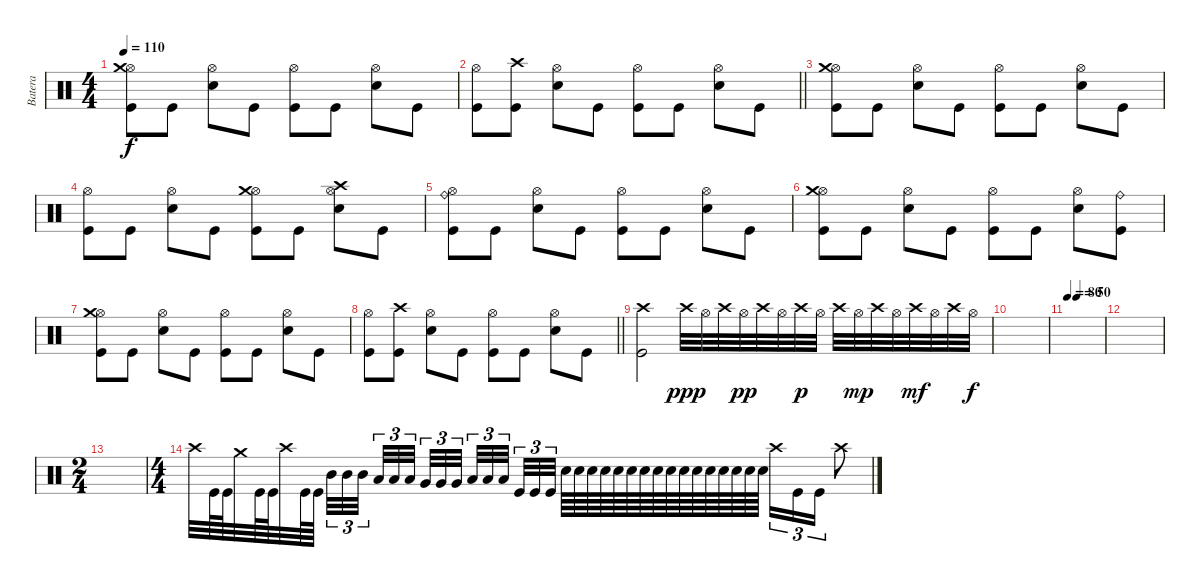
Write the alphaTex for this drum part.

\track ("Batera" "Batera") {instrument percussion}
\staff {score}
\articulation defaults
\ts (4 4)
\tempo 110
\clef neutral
\ks c
("Hi-Hat (open)" "Kick (hit)" "Crash medium (hit)").8{dy f} "Kick (hit)".8 ("Hi-Hat (open)" "Snare (hit) 2").8 "Kick (hit)".8 ("Hi-Hat (open)" "Kick (hit)").8 "Kick (hit)".8 ("Hi-Hat (open)" "Snare (hit) 2").8 "Kick (hit)".8 |
\barLineRight lightlight
("Hi-Hat (open)" "Kick (hit)").8 ("Kick (hit)" "Crash high (hit)").8 ("Hi-Hat (open)" "Snare (hit) 2").8 "Kick (hit)".8 ("Hi-Hat (open)" "Kick (hit)").8 "Kick (hit)".8 ("Hi-Hat (open)" "Snare (hit) 2").8 "Kick (hit)".8 |
("Hi-Hat (open)" "Kick (hit)" "Crash medium (hit)").8 "Kick (hit)".8 ("Hi-Hat (open)" "Snare (hit) 2").8 "Kick (hit)".8 ("Hi-Hat (open)" "Kick (hit)").8 "Kick (hit)".8 ("Hi-Hat (open)" "Snare (hit) 2").8 "Kick (hit)".8 |
("Hi-Hat (open)" "Kick (hit)").8 "Kick (hit)".8 ("Hi-Hat (open)" "Snare (hit) 2").8 "Kick (hit)".8 ("Hi-Hat (open)" "Kick (hit)" "Crash medium (hit)").8 "Kick (hit)".8 ("Hi-Hat (open)" "Snare (hit) 2" "Crash high (hit)").8 "Kick (hit)".8 |
("Hi-Hat (open)" "Kick (hit)" "Ride (bell)").8 "Kick (hit)".8 ("Hi-Hat (open)" "Snare (hit) 2").8 "Kick (hit)".8 ("Hi-Hat (open)" "Kick (hit)").8 "Kick (hit)".8 ("Hi-Hat (open)" "Snare (hit) 2").8 "Kick (hit)".8 |
("Hi-Hat (open)" "Kick (hit)" "Crash medium (hit)").8 "Kick (hit)".8 ("Hi-Hat (open)" "Snare (hit) 2").8 "Kick (hit)".8 ("Hi-Hat (open)" "Kick (hit)").8 "Kick (hit)".8 ("Hi-Hat (open)" "Snare (hit) 2").8 ("Kick (hit)" "Ride (bell)").8 |
("Hi-Hat (open)" "Kick (hit)" "Crash medium (hit)").8 "Kick (hit)".8 ("Hi-Hat (open)" "Snare (hit) 2").8 "Kick (hit)".8 ("Hi-Hat (open)" "Kick (hit)").8 "Kick (hit)".8 ("Hi-Hat (open)" "Snare (hit) 2").8 "Kick (hit)".8 |
\barLineRight lightlight
("Hi-Hat (open)" "Kick (hit)").8 ("Kick (hit)" "Crash high (hit)").8 ("Hi-Hat (open)" "Snare (hit) 2").8 "Kick (hit)".8 ("Hi-Hat (open)" "Kick (hit)").8 "Kick (hit)".8 ("Hi-Hat (open)" "Snare (hit) 2").8 "Kick (hit)".8 |
("Crash high (hit)" "Kick (hit)").2 "Crash high (hit)".32{dy ppp} "Hi-Hat (open)".32 "Crash high (hit)".32 "Hi-Hat (open)".32{dy pp} "Crash high (hit)".32 "Hi-Hat (open)".32 "Crash high (hit)".32{dy p} "Hi-Hat (open)".32 "Crash high (hit)".32 "Hi-Hat (open)".32{dy mp} "Crash high (hit)".32 "Hi-Hat (open)".32 "Crash high (hit)".32{dy mf} "Hi-Hat (open)".32 "Crash high (hit)".32 "Hi-Hat (open)".32{dy f} |
|
\tempo 80
\tempo (50 0.25)
|
|
\ts (2 4)
|
\ts (4 4)
"Crash high (hit)".32 "Kick (hit)".64 "Kick (hit)".64 "Crash medium (hit)".32 "Kick (hit)".64 "Kick (hit)".64 "Crash high (hit)".32 "Kick (hit)".64 "Kick (hit)".64{beam splitsecondary} "Mid Tom (hit)".32{tu (3 2)} "Mid Tom (hit)".32{tu (3 2)} "Mid Tom (hit)".32{tu (3 2)} "Low Tom (hit)".32{tu (3 2)} "Low Tom (hit)".32{tu (3 2)} "Low Tom (hit)".32{tu (3 2) beam splitsecondary} "Very Low Tom (hit)".32{tu (3 2)} "Very Low Tom (hit)".32{tu (3 2)} "Very Low Tom (hit)".32{tu (3 2) beam splitsecondary} "Low Floor Tom (hit)".32{tu (3 2)} "Low Floor Tom (hit)".32{tu (3 2)} "Low Floor Tom (hit)".32{tu (3 2) beam splitsecondary} "Kick (hit)".32{tu (3 2)} "Kick (hit)".32{tu (3 2)} "Kick (hit)".32{tu (3 2)} "Snare (hit) 2".64 "Snare (hit) 2".64 "Snare (hit) 2".64 "Snare (hit) 2".64 "Snare (hit) 2".64 "Snare (hit) 2".64 "Snare (hit) 2".64 "Snare (hit) 2".64 "Snare (hit) 2".64 "Snare (hit) 2".64 "Snare (hit) 2".64 "Snare (hit) 2".64 "Snare (hit) 2".64 "Snare (hit) 2".64 "Snare (hit) 2".64 "Snare (hit) 2".64 "Crash high (hit)".16{tu (3 2)} "Kick (hit)".16{tu (3 2)} "Kick (hit)".16{tu (3 2)} "Crash high (hit)".8
